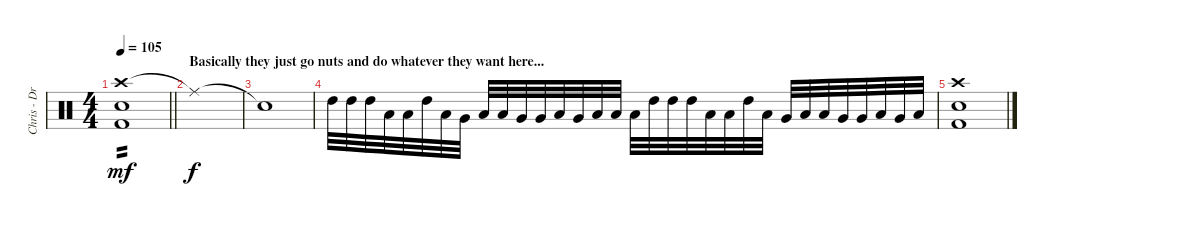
\track ("Chris - Drums" "Chris - Dr") {instrument percussion}
\staff {score}
\articulation defaults
\ts (4 4)
\tempo 105
\clef neutral
\barLineRight lightlight
\ks c
("Crash high (hit)" "Electric Snare (hit)" "Kick (hit) 2").1{tp 2 dy mf} |
\section ("" "Basically they just go nuts and do whatever they want here...")
"Ride (middle)"{t}.1{dy f} |
"Snare (hit)"{t}.1 |
"High Tom (hit)".32 "High Tom (hit)".32 "High Tom (hit)".32 "Low Tom (hit)".32 "Low Tom (hit)".32 "High Tom (hit)".32 "Low Tom (hit)".32 "Very Low Tom (hit)".32 "Low Floor Tom (hit)".32 "Low Tom (hit)".32 "Very Low Tom (hit)".32 "Very Low Tom (hit)".32 "Low Floor Tom (hit)".32 "Very Low Tom (hit)".32 "Low Tom (hit)".32 "Low Tom (hit)".32 "Low Tom (hit)".32 "High Tom (hit)".32 "High Tom (hit)".32 "High Tom (hit)".32 "Low Tom (hit)".32 "Low Tom (hit)".32 "High Tom (hit)".32 "Low Tom (hit)".32 "Very Low Tom (hit)".32 "Low Floor Tom (hit)".32 "Low Tom (hit)".32 "Very Low Tom (hit)".32 "Very Low Tom (hit)".32 "Low Floor Tom (hit)".32 "Very Low Tom (hit)".32 "Low Tom (hit)".32 |
("Crash high (hit)" "Electric Snare (hit)" "Kick (hit) 2").1
